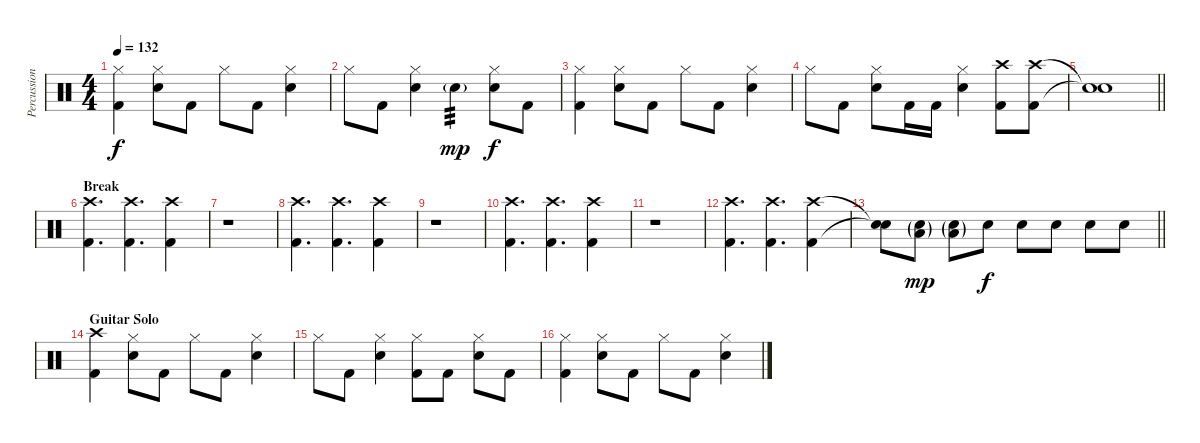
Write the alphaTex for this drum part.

\track ("Percussion" "Percussion") {instrument percussion}
\staff {score}
\articulation defaults
\ts (4 4)
\tempo 132
\clef neutral
\ks c
("Hi-Hat (closed)" "Kick (hit) 2").4{dy f} ("Hi-Hat (closed)" "Snare (hit) 2").8 "Kick (hit) 2".8 "Hi-Hat (closed)".8 "Kick (hit) 2".8 ("Hi-Hat (closed)" "Snare (hit) 2").4 |
"Hi-Hat (closed)".8 "Kick (hit) 2".8 ("Hi-Hat (closed)" "Snare (hit) 2").4 "Snare (hit) 2"{g}.4{tp 3 dy mp} ("Hi-Hat (closed)" "Snare (hit) 2").8{dy f} "Kick (hit) 2".8 |
("Hi-Hat (closed)" "Kick (hit) 2").4 ("Hi-Hat (closed)" "Snare (hit) 2").8 "Kick (hit) 2".8 "Hi-Hat (closed)".8 "Kick (hit) 2".8 ("Hi-Hat (closed)" "Snare (hit) 2").4 |
"Hi-Hat (closed)".8 "Kick (hit) 2".8 ("Hi-Hat (closed)" "Snare (hit) 2").8 "Kick (hit) 2".16 "Kick (hit) 2".16 ("Hi-Hat (closed)" "Snare (hit) 2").4 ("Crash high (hit)" "Kick (hit) 2").8 ("Crash high (hit)" "Kick (hit) 2").8 |
\barLineRight lightlight
("Snare (hit)"{t} "Snare (hit)"{t}).1 |
\section ("" "Break")
("Crash high (hit)" "Kick (hit) 2").4{d} ("Crash high (hit)" "Kick (hit) 2").4{d} ("Crash high (hit)" "Kick (hit) 2").4 |
r.1 |
("Crash high (hit)" "Kick (hit) 2").4{d} ("Crash high (hit)" "Kick (hit) 2").4{d} ("Crash high (hit)" "Kick (hit) 2").4 |
r.1 |
("Crash high (hit)" "Kick (hit) 2").4{d} ("Crash high (hit)" "Kick (hit) 2").4{d} ("Crash high (hit)" "Kick (hit) 2").4 |
r.1 |
("Crash high (hit)" "Kick (hit) 2").4{d} ("Crash high (hit)" "Kick (hit) 2").4{d} ("Crash high (hit)" "Kick (hit) 2").4 |
\barLineRight lightlight
("Snare (hit)"{t} "Snare (hit)"{t}).8 ("Low Tom (hit)"{g} "Snare (hit) 2"{g}).8{dy mp} ("Low Tom (hit)"{g} "Snare (hit) 2"{g}).8 "Snare (hit) 2".8{dy f} "Snare (hit) 2".8 "Snare (hit) 2".8 "Snare (hit) 2".8 "Snare (hit) 2".8 |
\section ("" "Guitar Solo")
("Crash high (hit)" "Kick (hit) 2").4 ("Hi-Hat (closed)" "Snare (hit) 2").8 "Kick (hit) 2".8 "Hi-Hat (closed)".8 "Kick (hit) 2".8 ("Hi-Hat (closed)" "Snare (hit) 2").4 |
"Hi-Hat (closed)".8 "Kick (hit) 2".8 ("Hi-Hat (closed)" "Snare (hit) 2").4 ("Hi-Hat (closed)" "Kick (hit) 2").8 "Kick (hit) 2".8 ("Hi-Hat (closed)" "Snare (hit) 2").8 "Kick (hit) 2".8 |
("Hi-Hat (closed)" "Kick (hit) 2").4 ("Hi-Hat (closed)" "Snare (hit) 2").8 "Kick (hit) 2".8 "Hi-Hat (closed)".8 "Kick (hit) 2".8 ("Hi-Hat (closed)" "Snare (hit) 2").4
